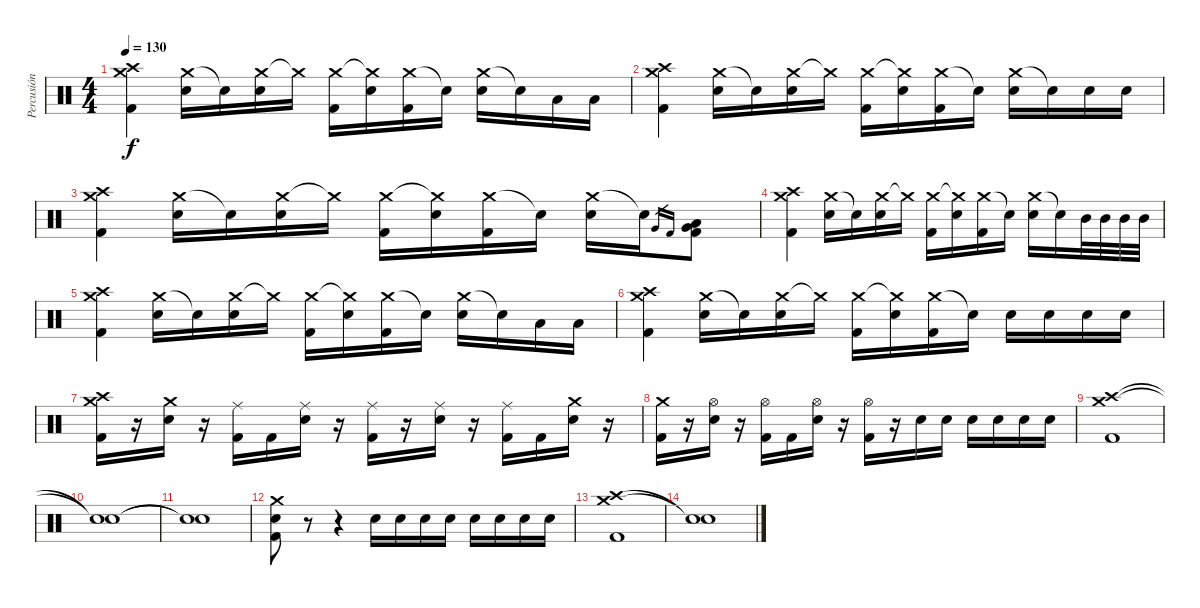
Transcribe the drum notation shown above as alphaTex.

\track ("Percusión" "Percusión") {instrument percussion}
\staff {score}
\articulation defaults
\ts (4 4)
\tempo 130
\clef neutral
\ks c
("Crash medium (hit)" "Crash high (hit)" "Kick (hit) 2").4{dy f} ("Crash medium (hit)" "Electric Snare (hit)").16 "Snare (hit)"{t}.16 ("Crash medium (hit)" "Electric Snare (hit)").16 "Crash medium (hit)"{t}.16 ("Crash medium (hit)" "Kick (hit) 2").16 ("Crash medium (hit)"{t} "Electric Snare (hit)").16 ("Crash medium (hit)" "Kick (hit) 2").16 "Snare (hit)"{t}.16 ("Crash medium (hit)" "Electric Snare (hit)").16 "Snare (hit)"{t}.16 "Low Tom (hit)".16 "Low Tom (hit)".16 |
("Crash medium (hit)" "Crash high (hit)" "Kick (hit) 2").4 ("Crash medium (hit)" "Electric Snare (hit)").16 "Snare (hit)"{t}.16 ("Crash medium (hit)" "Electric Snare (hit)").16 "Crash medium (hit)"{t}.16 ("Crash medium (hit)" "Kick (hit) 2").16 ("Crash medium (hit)"{t} "Electric Snare (hit)").16 ("Crash medium (hit)" "Kick (hit) 2").16 "Snare (hit)"{t}.16 ("Crash medium (hit)" "Electric Snare (hit)").16 "Snare (hit)"{t}.16 "Electric Snare (hit)".16 "Electric Snare (hit)".16 |
("Crash medium (hit)" "Crash high (hit)" "Kick (hit) 2").4 ("Crash medium (hit)" "Electric Snare (hit)").16 "Snare (hit)"{t}.16 ("Crash medium (hit)" "Electric Snare (hit)").16 "Crash medium (hit)"{t}.16 ("Crash medium (hit)" "Kick (hit) 2").16 ("Crash medium (hit)"{t} "Electric Snare (hit)").16 ("Crash medium (hit)" "Kick (hit) 2").16 "Snare (hit)"{t}.16 ("Crash medium (hit)" "Electric Snare (hit)").16 "Snare (hit)"{t}.16 "Very Low Tom (hit)".16{gr} "Kick (hit) 2".16{gr} ("Low Tom (hit)" "Very Low Tom (hit)" "Kick (hit) 2").8 |
("Crash medium (hit)" "Crash high (hit)" "Kick (hit) 2").4 ("Crash medium (hit)" "Electric Snare (hit)").16 "Snare (hit)"{t}.16 ("Crash medium (hit)" "Electric Snare (hit)").16 "Crash medium (hit)"{t}.16 ("Crash medium (hit)" "Kick (hit) 2").16 ("Crash medium (hit)"{t} "Electric Snare (hit)").16 ("Crash medium (hit)" "Kick (hit) 2").16 "Snare (hit)"{t}.16 ("Crash medium (hit)" "Electric Snare (hit)").16 "Snare (hit)"{t}.16 "Mid Tom (hit)".32 "Mid Tom (hit)".32 "Mid Tom (hit)".32 "Mid Tom (hit)".32 |
("Crash medium (hit)" "Crash high (hit)" "Kick (hit) 2").4 ("Crash medium (hit)" "Electric Snare (hit)").16 "Snare (hit)"{t}.16 ("Crash medium (hit)" "Electric Snare (hit)").16 "Crash medium (hit)"{t}.16 ("Crash medium (hit)" "Kick (hit) 2").16 ("Crash medium (hit)"{t} "Electric Snare (hit)").16 ("Crash medium (hit)" "Kick (hit) 2").16 "Snare (hit)"{t}.16 ("Crash medium (hit)" "Electric Snare (hit)").16 "Snare (hit)"{t}.16 "Low Tom (hit)".16 "Low Tom (hit)".16 |
("Crash medium (hit)" "Crash high (hit)" "Kick (hit) 2").4 ("Crash medium (hit)" "Electric Snare (hit)").16 "Snare (hit)"{t}.16 ("Crash medium (hit)" "Electric Snare (hit)").16 "Crash medium (hit)"{t}.16 ("Crash medium (hit)" "Kick (hit) 2").16 ("Crash medium (hit)"{t} "Electric Snare (hit)").16 ("Crash medium (hit)" "Kick (hit) 2").16 "Snare (hit)"{t}.16 "Electric Snare (hit)".16 "Electric Snare (hit)".16 "Electric Snare (hit)".16 "Electric Snare (hit)".16 |
("Crash medium (hit)" "Crash high (hit)" "Kick (hit) 2").16 r.16 ("Crash medium (hit)" "Electric Snare (hit)").16 r.16 ("Ride (middle)" "Kick (hit) 2").16 "Kick (hit) 2".16 ("Ride (middle)" "Electric Snare (hit)").16 r.16 ("Ride (middle)" "Kick (hit) 2").16 r.16 ("Ride (middle)" "Electric Snare (hit)").16 r.16 ("Ride (middle)" "Kick (hit) 2").16 "Kick (hit) 2".16 ("Crash medium (hit)" "Electric Snare (hit)").16 r.16 |
("Crash medium (hit)" "Kick (hit) 2").16 r.16 ("Hi-Hat (open)" "Electric Snare (hit)").16 r.16 ("Hi-Hat (open)" "Kick (hit) 2").16 "Kick (hit) 2".16 ("Hi-Hat (open)" "Electric Snare (hit)").16 r.16 ("Hi-Hat (open)" "Kick (hit) 2").16 r.16 "Electric Snare (hit)".16 "Electric Snare (hit)".16 "Electric Snare (hit)".16 "Electric Snare (hit)".16 "Electric Snare (hit)".16 "Electric Snare (hit)".16 |
("Crash high (hit)" "Crash medium (hit)" "Kick (hit) 2").1 |
("Snare (hit)"{t} "Snare (hit)"{t}).1 |
("Snare (hit)"{t} "Snare (hit)"{t}).1 |
("Crash medium (hit)" "Electric Snare (hit)" "Kick (hit) 2").8 r.8 r.4 "Electric Snare (hit)".16 "Electric Snare (hit)".16 "Electric Snare (hit)".16 "Electric Snare (hit)".16 "Electric Snare (hit)".16 "Electric Snare (hit)".16 "Electric Snare (hit)".16 "Electric Snare (hit)".16 |
("Crash high (hit)" "Crash medium (hit)" "Kick (hit) 2").1 |
("Snare (hit)"{t} "Snare (hit)"{t}).1
